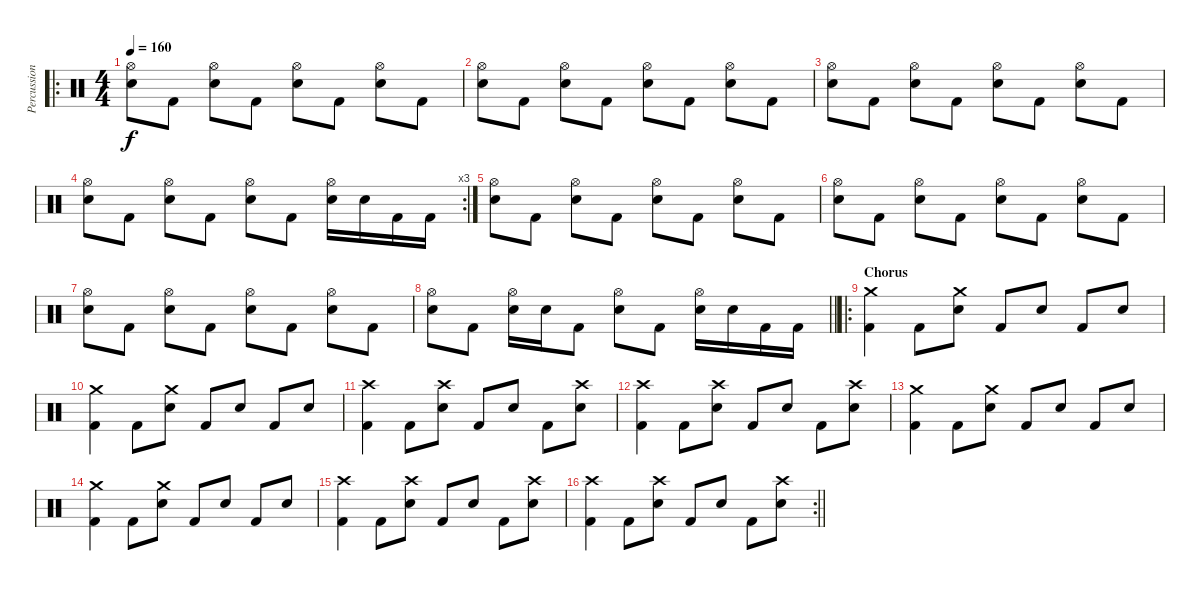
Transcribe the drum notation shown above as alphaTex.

\track ("Percussion" "Percussion") {instrument percussion}
\staff {score}
\articulation defaults
\ro
\ts (4 4)
\tempo 160
\clef neutral
\ks c
("Hi-Hat (open)" "Electric Snare (hit)").8{dy f} "Kick (hit) 2".8 ("Hi-Hat (open)" "Electric Snare (hit)").8 "Kick (hit) 2".8 ("Hi-Hat (open)" "Electric Snare (hit)").8 "Kick (hit) 2".8 ("Hi-Hat (open)" "Electric Snare (hit)").8 "Kick (hit) 2".8 |
("Hi-Hat (open)" "Electric Snare (hit)").8 "Kick (hit) 2".8 ("Hi-Hat (open)" "Electric Snare (hit)").8 "Kick (hit) 2".8 ("Hi-Hat (open)" "Electric Snare (hit)").8 "Kick (hit) 2".8 ("Hi-Hat (open)" "Electric Snare (hit)").8 "Kick (hit) 2".8 |
("Hi-Hat (open)" "Electric Snare (hit)").8 "Kick (hit) 2".8 ("Hi-Hat (open)" "Electric Snare (hit)").8 "Kick (hit) 2".8 ("Hi-Hat (open)" "Electric Snare (hit)").8 "Kick (hit) 2".8 ("Hi-Hat (open)" "Electric Snare (hit)").8 "Kick (hit) 2".8 |
\rc 3
("Hi-Hat (open)" "Electric Snare (hit)").8 "Kick (hit) 2".8 ("Hi-Hat (open)" "Electric Snare (hit)").8 "Kick (hit) 2".8 ("Hi-Hat (open)" "Electric Snare (hit)").8 "Kick (hit) 2".8 ("Hi-Hat (open)" "Electric Snare (hit)").16 "Electric Snare (hit)".16 "Kick (hit) 2".16 "Kick (hit) 2".16 |
("Hi-Hat (open)" "Electric Snare (hit)").8 "Kick (hit) 2".8 ("Hi-Hat (open)" "Electric Snare (hit)").8 "Kick (hit) 2".8 ("Hi-Hat (open)" "Electric Snare (hit)").8 "Kick (hit) 2".8 ("Hi-Hat (open)" "Electric Snare (hit)").8 "Kick (hit) 2".8 |
("Hi-Hat (open)" "Electric Snare (hit)").8 "Kick (hit) 2".8 ("Hi-Hat (open)" "Electric Snare (hit)").8 "Kick (hit) 2".8 ("Hi-Hat (open)" "Electric Snare (hit)").8 "Kick (hit) 2".8 ("Hi-Hat (open)" "Electric Snare (hit)").8 "Kick (hit) 2".8 |
("Hi-Hat (open)" "Electric Snare (hit)").8 "Kick (hit) 2".8 ("Hi-Hat (open)" "Electric Snare (hit)").8 "Kick (hit) 2".8 ("Hi-Hat (open)" "Electric Snare (hit)").8 "Kick (hit) 2".8 ("Hi-Hat (open)" "Electric Snare (hit)").8 "Kick (hit) 2".8 |
\barLineRight lightlight
("Hi-Hat (open)" "Electric Snare (hit)").8 "Kick (hit) 2".8 ("Hi-Hat (open)" "Electric Snare (hit)").16 "Electric Snare (hit)".16 "Kick (hit) 2".8 ("Hi-Hat (open)" "Electric Snare (hit)").8 "Kick (hit) 2".8 ("Hi-Hat (open)" "Electric Snare (hit)").16 "Electric Snare (hit)".16 "Kick (hit) 2".16 "Kick (hit) 2".16 |
\ro
\section ("" "Chorus")
("Crash medium (hit)" "Kick (hit) 2").4 "Kick (hit) 2".8 ("Crash medium (hit)" "Electric Snare (hit)").8 "Kick (hit) 2".8 "Electric Snare (hit)".8 "Kick (hit) 2".8 "Electric Snare (hit)".8 |
("Crash medium (hit)" "Kick (hit) 2").4 "Kick (hit) 2".8 ("Crash medium (hit)" "Electric Snare (hit)").8 "Kick (hit) 2".8 "Electric Snare (hit)".8 "Kick (hit) 2".8 "Electric Snare (hit)".8 |
("Crash high (hit)" "Kick (hit) 2").4 "Kick (hit) 2".8 ("Crash high (hit)" "Electric Snare (hit)").8 "Kick (hit) 2".8 "Electric Snare (hit)".8 "Kick (hit) 2".8 ("Crash high (hit)" "Electric Snare (hit)").8 |
("Crash high (hit)" "Kick (hit) 2").4 "Kick (hit) 2".8 ("Crash high (hit)" "Electric Snare (hit)").8 "Kick (hit) 2".8 "Electric Snare (hit)".8 "Kick (hit) 2".8 ("Crash high (hit)" "Electric Snare (hit)").8 |
("Crash medium (hit)" "Kick (hit) 2").4 "Kick (hit) 2".8 ("Crash medium (hit)" "Electric Snare (hit)").8 "Kick (hit) 2".8 "Electric Snare (hit)".8 "Kick (hit) 2".8 "Electric Snare (hit)".8 |
("Crash medium (hit)" "Kick (hit) 2").4 "Kick (hit) 2".8 ("Crash medium (hit)" "Electric Snare (hit)").8 "Kick (hit) 2".8 "Electric Snare (hit)".8 "Kick (hit) 2".8 "Electric Snare (hit)".8 |
("Crash high (hit)" "Kick (hit) 2").4 "Kick (hit) 2".8 ("Crash high (hit)" "Electric Snare (hit)").8 "Kick (hit) 2".8 "Electric Snare (hit)".8 "Kick (hit) 2".8 ("Crash high (hit)" "Electric Snare (hit)").8 |
\rc 2
\barLineRight lightlight
("Crash high (hit)" "Kick (hit) 2").4 "Kick (hit) 2".8 ("Crash high (hit)" "Electric Snare (hit)").8 "Kick (hit) 2".8 "Electric Snare (hit)".8 "Kick (hit) 2".8 ("Crash high (hit)" "Electric Snare (hit)").8
